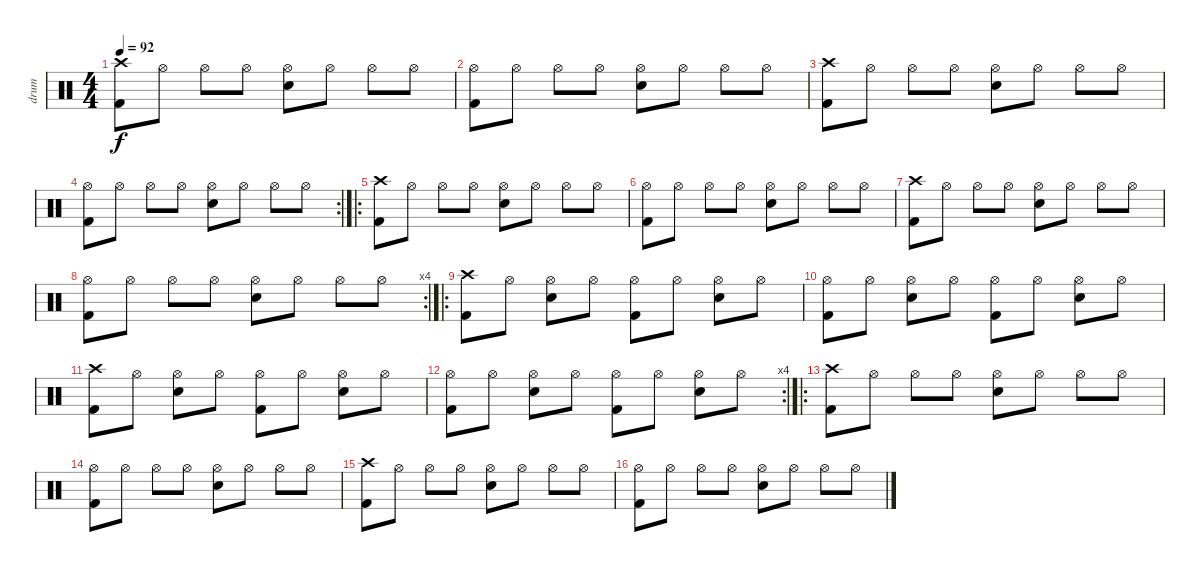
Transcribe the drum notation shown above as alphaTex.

\track ("drum" "drum") {instrument percussion}
\staff {score}
\articulation defaults
\ts (4 4)
\tempo 92
\clef neutral
\ks c
("Crash high (hit)" "Kick (hit) 2").8{dy f} "Hi-Hat (open)".8 "Hi-Hat (open)".8 "Hi-Hat (open)".8 ("Hi-Hat (open)" "Electric Snare (hit)").8 "Hi-Hat (open)".8 "Hi-Hat (open)".8 "Hi-Hat (open)".8 |
("Hi-Hat (open)" "Kick (hit) 2").8 "Hi-Hat (open)".8 "Hi-Hat (open)".8 "Hi-Hat (open)".8 ("Hi-Hat (open)" "Electric Snare (hit)").8 "Hi-Hat (open)".8 "Hi-Hat (open)".8 "Hi-Hat (open)".8 |
("Crash high (hit)" "Kick (hit) 2").8 "Hi-Hat (open)".8 "Hi-Hat (open)".8 "Hi-Hat (open)".8 ("Hi-Hat (open)" "Electric Snare (hit)").8 "Hi-Hat (open)".8 "Hi-Hat (open)".8 "Hi-Hat (open)".8 |
\rc 2
("Hi-Hat (open)" "Kick (hit) 2").8 "Hi-Hat (open)".8 "Hi-Hat (open)".8 "Hi-Hat (open)".8 ("Hi-Hat (open)" "Electric Snare (hit)").8 "Hi-Hat (open)".8 "Hi-Hat (open)".8 "Hi-Hat (open)".8 |
\ro
("Crash high (hit)" "Kick (hit) 2").8 "Hi-Hat (open)".8 "Hi-Hat (open)".8 "Hi-Hat (open)".8 ("Hi-Hat (open)" "Electric Snare (hit)").8 "Hi-Hat (open)".8 "Hi-Hat (open)".8 "Hi-Hat (open)".8 |
("Hi-Hat (open)" "Kick (hit) 2").8 "Hi-Hat (open)".8 "Hi-Hat (open)".8 "Hi-Hat (open)".8 ("Hi-Hat (open)" "Electric Snare (hit)").8 "Hi-Hat (open)".8 "Hi-Hat (open)".8 "Hi-Hat (open)".8 |
("Crash high (hit)" "Kick (hit) 2").8 "Hi-Hat (open)".8 "Hi-Hat (open)".8 "Hi-Hat (open)".8 ("Hi-Hat (open)" "Electric Snare (hit)").8 "Hi-Hat (open)".8 "Hi-Hat (open)".8 "Hi-Hat (open)".8 |
\rc 4
("Hi-Hat (open)" "Kick (hit) 2").8 "Hi-Hat (open)".8 "Hi-Hat (open)".8 "Hi-Hat (open)".8 ("Hi-Hat (open)" "Electric Snare (hit)").8 "Hi-Hat (open)".8 "Hi-Hat (open)".8 "Hi-Hat (open)".8 |
\ro
("Crash high (hit)" "Kick (hit) 2").8 "Hi-Hat (open)".8 ("Hi-Hat (open)" "Electric Snare (hit)").8 "Hi-Hat (open)".8 ("Hi-Hat (open)" "Kick (hit) 2").8 "Hi-Hat (open)".8 ("Hi-Hat (open)" "Electric Snare (hit)").8 "Hi-Hat (open)".8 |
("Hi-Hat (open)" "Kick (hit) 2").8 "Hi-Hat (open)".8 ("Hi-Hat (open)" "Electric Snare (hit)").8 "Hi-Hat (open)".8 ("Hi-Hat (open)" "Kick (hit) 2").8 "Hi-Hat (open)".8 ("Hi-Hat (open)" "Electric Snare (hit)").8 "Hi-Hat (open)".8 |
("Crash high (hit)" "Kick (hit) 2").8 "Hi-Hat (open)".8 ("Hi-Hat (open)" "Electric Snare (hit)").8 "Hi-Hat (open)".8 ("Hi-Hat (open)" "Kick (hit) 2").8 "Hi-Hat (open)".8 ("Hi-Hat (open)" "Electric Snare (hit)").8 "Hi-Hat (open)".8 |
\rc 4
("Hi-Hat (open)" "Kick (hit) 2").8 "Hi-Hat (open)".8 ("Hi-Hat (open)" "Electric Snare (hit)").8 "Hi-Hat (open)".8 ("Hi-Hat (open)" "Kick (hit) 2").8 "Hi-Hat (open)".8 ("Hi-Hat (open)" "Electric Snare (hit)").8 "Hi-Hat (open)".8 |
\ro
("Crash high (hit)" "Kick (hit) 2").8 "Hi-Hat (open)".8 "Hi-Hat (open)".8 "Hi-Hat (open)".8 ("Hi-Hat (open)" "Electric Snare (hit)").8 "Hi-Hat (open)".8 "Hi-Hat (open)".8 "Hi-Hat (open)".8 |
("Hi-Hat (open)" "Kick (hit) 2").8 "Hi-Hat (open)".8 "Hi-Hat (open)".8 "Hi-Hat (open)".8 ("Hi-Hat (open)" "Electric Snare (hit)").8 "Hi-Hat (open)".8 "Hi-Hat (open)".8 "Hi-Hat (open)".8 |
("Crash high (hit)" "Kick (hit) 2").8 "Hi-Hat (open)".8 "Hi-Hat (open)".8 "Hi-Hat (open)".8 ("Hi-Hat (open)" "Electric Snare (hit)").8 "Hi-Hat (open)".8 "Hi-Hat (open)".8 "Hi-Hat (open)".8 |
("Hi-Hat (open)" "Kick (hit) 2").8 "Hi-Hat (open)".8 "Hi-Hat (open)".8 "Hi-Hat (open)".8 ("Hi-Hat (open)" "Electric Snare (hit)").8 "Hi-Hat (open)".8 "Hi-Hat (open)".8 "Hi-Hat (open)".8
